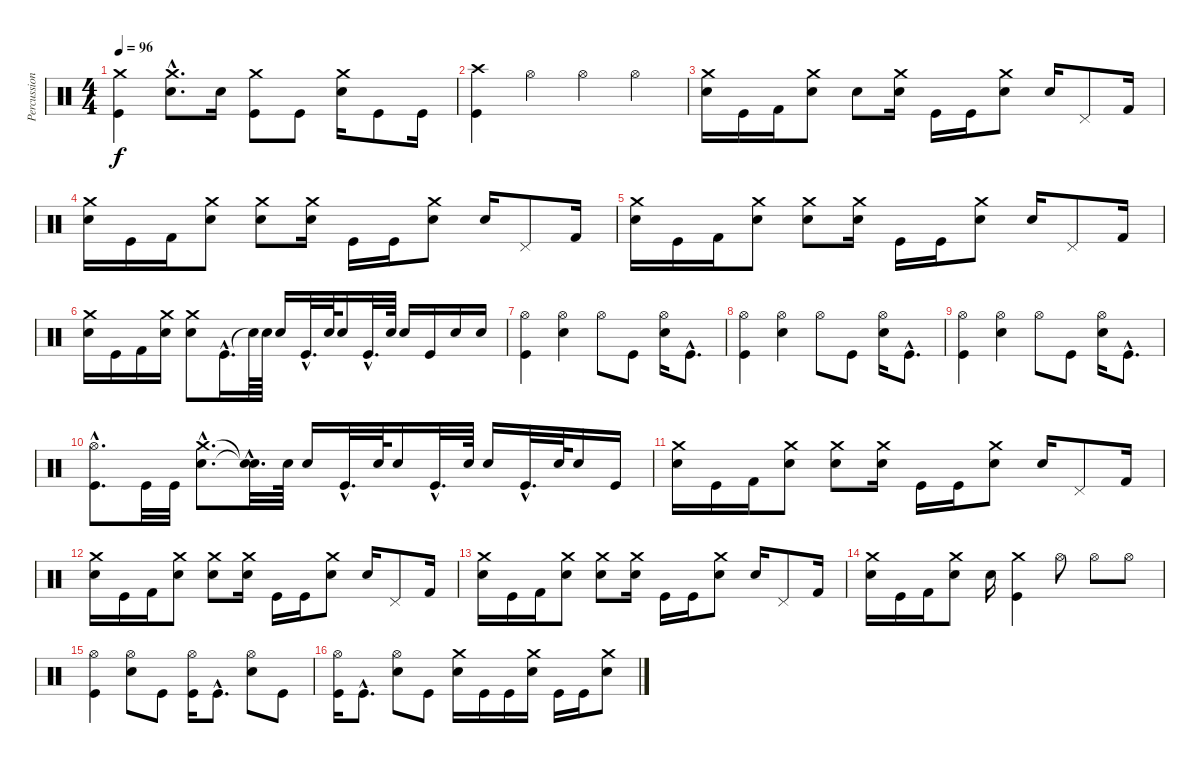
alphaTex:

\track ("Percussion" "Percussion") {instrument percussion}
\staff {score}
\articulation defaults
\ts (4 4)
\tempo 96
\clef neutral
\ks c
("Kick (hit)" "Crash medium (hit)").4{dy f} ("Electric Snare (hit)"{hac} "Crash medium (hit)"{hac}).8{d} "Electric Snare (hit)".16 ("Kick (hit)" "Crash medium (hit)").8 "Kick (hit)".8 ("Electric Snare (hit)" "Crash medium (hit)").16 "Kick (hit)".8 "Kick (hit)".16 |
("Crash high (hit)" "Kick (hit)").4 "Hi-Hat (open)".4 "Hi-Hat (open)".4 "Hi-Hat (open)".4 |
("Electric Snare (hit)" "Crash medium (hit)").16 "Kick (hit)".16 "Kick (hit) 2".16 ("Crash medium (hit)" "Electric Snare (hit)").8 "Electric Snare (hit)".8 ("Crash medium (hit)" "Electric Snare (hit)").16 "Kick (hit)".16 "Kick (hit)".16 ("Crash medium (hit)" "Electric Snare (hit)").8 "Electric Snare (hit)".16 "Pedal Hi-Hat (hit)".8 "Kick (hit) 2".16 |
("Electric Snare (hit)" "Crash medium (hit)").16 "Kick (hit)".16 "Kick (hit) 2".16 ("Crash medium (hit)" "Electric Snare (hit)").8 ("Electric Snare (hit)" "Crash medium (hit)").8 ("Crash medium (hit)" "Electric Snare (hit)").16 "Kick (hit)".16 "Kick (hit)".16 ("Crash medium (hit)" "Electric Snare (hit)").8 "Electric Snare (hit)".16 "Pedal Hi-Hat (hit)".8 "Kick (hit) 2".16 |
("Electric Snare (hit)" "Crash medium (hit)").16 "Kick (hit)".16 "Kick (hit) 2".16 ("Crash medium (hit)" "Electric Snare (hit)").8 ("Electric Snare (hit)" "Crash medium (hit)").8 ("Crash medium (hit)" "Electric Snare (hit)").16 "Kick (hit)".16 "Kick (hit)".16 ("Crash medium (hit)" "Electric Snare (hit)").8 "Electric Snare (hit)".16 "Pedal Hi-Hat (hit)".8 "Kick (hit) 2".16 |
("Electric Snare (hit)" "Crash medium (hit)").16 "Kick (hit)".16 "Kick (hit) 2".16 ("Crash medium (hit)" "Electric Snare (hit)").16 ("Crash medium (hit)" "Electric Snare (hit)").8 "Kick (hit)"{hac}.16{d} "Snare (hit)"{t}.64 "Electric Snare (hit)".64 "Electric Snare (hit)".16 "Kick (hit)"{hac}.32{d} "Electric Snare (hit)".64 "Electric Snare (hit)".16 "Kick (hit)"{hac}.32{d} "Electric Snare (hit)".64 "Electric Snare (hit)".16 "Kick (hit)".16 "Electric Snare (hit)".16 "Electric Snare (hit)".16 |
("Kick (hit)" "Hi-Hat (open)").4 ("Electric Snare (hit)" "Hi-Hat (open)").4 "Hi-Hat (open)".8 "Kick (hit)".8 ("Electric Snare (hit)" "Hi-Hat (open)").16 "Kick (hit)"{hac}.8{d} |
("Kick (hit)" "Hi-Hat (open)").4 ("Electric Snare (hit)" "Hi-Hat (open)").4 "Hi-Hat (open)".8 "Kick (hit)".8 ("Electric Snare (hit)" "Hi-Hat (open)").16 "Kick (hit)"{hac}.8{d} |
("Kick (hit)" "Hi-Hat (open)").4 ("Electric Snare (hit)" "Hi-Hat (open)").4 "Hi-Hat (open)".8 "Kick (hit)".8 ("Electric Snare (hit)" "Hi-Hat (open)").16 "Kick (hit)"{hac}.8{d} |
("Kick (hit)"{hac} "Hi-Hat (open)"{hac}).8{d} "Kick (hit)".32 "Kick (hit)".32 ("Electric Snare (hit)"{hac} "Crash medium (hit)"{hac}).8{d} ("Snare (hit)"{hac t} "Snare (hit)"{hac t}).32{d} "Electric Snare (hit)".64 "Electric Snare (hit)".16 "Kick (hit)"{hac}.32{d} "Electric Snare (hit)".64 "Electric Snare (hit)".16 "Kick (hit)"{hac}.32{d} "Electric Snare (hit)".64 "Electric Snare (hit)".16 "Kick (hit)"{hac}.32{d} "Electric Snare (hit)".64 "Electric Snare (hit)".16 "Kick (hit)".16 |
("Electric Snare (hit)" "Crash medium (hit)").16 "Kick (hit)".16 "Kick (hit) 2".16 ("Crash medium (hit)" "Electric Snare (hit)").8 ("Electric Snare (hit)" "Crash medium (hit)").8 ("Crash medium (hit)" "Electric Snare (hit)").16 "Kick (hit)".16 "Kick (hit)".16 ("Crash medium (hit)" "Electric Snare (hit)").8 "Electric Snare (hit)".16 "Pedal Hi-Hat (hit)".8 "Kick (hit) 2".16 |
("Electric Snare (hit)" "Crash medium (hit)").16 "Kick (hit)".16 "Kick (hit) 2".16 ("Crash medium (hit)" "Electric Snare (hit)").8 ("Electric Snare (hit)" "Crash medium (hit)").8 ("Crash medium (hit)" "Electric Snare (hit)").16 "Kick (hit)".16 "Kick (hit)".16 ("Crash medium (hit)" "Electric Snare (hit)").8 "Electric Snare (hit)".16 "Pedal Hi-Hat (hit)".8 "Kick (hit) 2".16 |
("Electric Snare (hit)" "Crash medium (hit)").16 "Kick (hit)".16 "Kick (hit) 2".16 ("Crash medium (hit)" "Electric Snare (hit)").8 ("Electric Snare (hit)" "Crash medium (hit)").8 ("Crash medium (hit)" "Electric Snare (hit)").16 "Kick (hit)".16 "Kick (hit)".16 ("Crash medium (hit)" "Electric Snare (hit)").8 "Electric Snare (hit)".16 "Pedal Hi-Hat (hit)".8 "Kick (hit) 2".16 |
("Electric Snare (hit)" "Crash medium (hit)").16 "Kick (hit)".16 "Kick (hit) 2".16 ("Crash medium (hit)" "Electric Snare (hit)").8 "Electric Snare (hit)".16 ("Kick (hit)" "Crash medium (hit)").4 "Hi-Hat (open)".8 "Hi-Hat (open)".8 "Hi-Hat (open)".8 |
("Kick (hit)" "Hi-Hat (open)").4 ("Electric Snare (hit)" "Hi-Hat (open)").8 "Kick (hit)".8 ("Hi-Hat (open)" "Kick (hit)").16 "Kick (hit)"{hac}.8{d} ("Electric Snare (hit)" "Hi-Hat (open)").8 "Kick (hit)".8 |
("Kick (hit)" "Hi-Hat (open)").16 "Kick (hit)"{hac}.8{d} ("Electric Snare (hit)" "Hi-Hat (open)").8 "Kick (hit)".8 ("Electric Snare (hit)" "Crash medium (hit)").16 "Kick (hit)".16 "Kick (hit)".16 ("Electric Snare (hit)" "Crash medium (hit)").16 "Kick (hit)".16 "Kick (hit)".16 ("Crash medium (hit)" "Electric Snare (hit)").8
